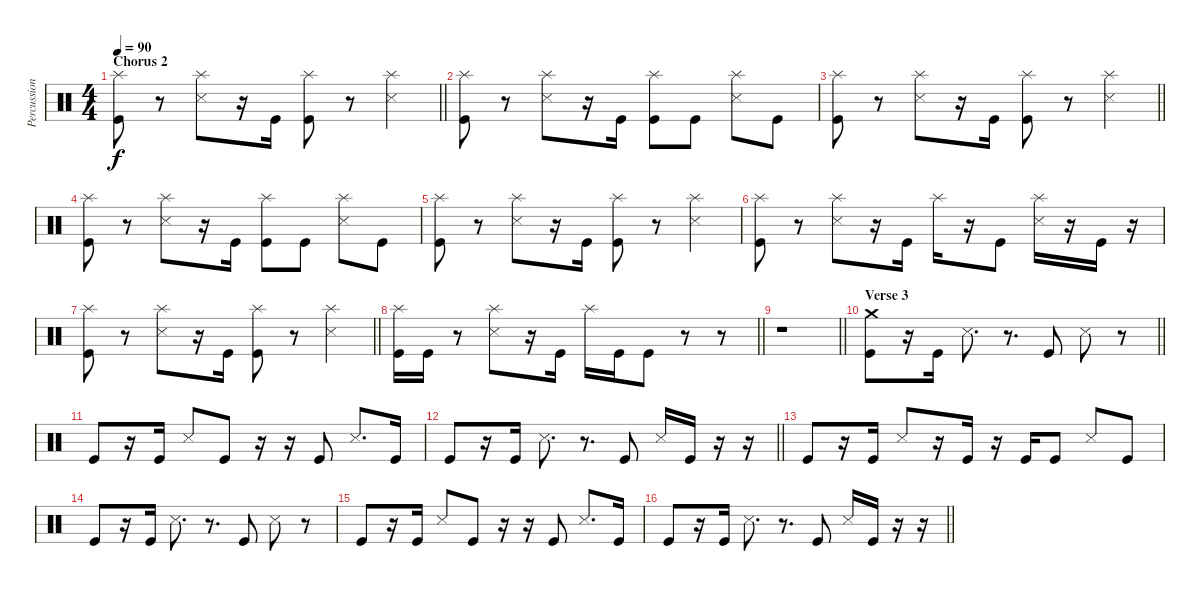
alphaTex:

\track ("Percussion" "Percussion") {instrument percussion}
\staff {score}
\articulation defaults
\ts (4 4)
\section ("" "Chorus 2")
\tempo 90
\clef neutral
\barLineRight lightlight
\ks c
("Splash (hit)" "Kick (hit)").8{dy f volume 13} r.8 ("Splash (hit)" "Snare (side stick) 3").8 r.16 "Kick (hit)".16 ("Splash (hit)" "Kick (hit)").8 r.8 ("Splash (hit)" "Snare (side stick) 3").4 |
("Splash (hit)" "Kick (hit)").8 r.8 ("Splash (hit)" "Snare (side stick) 3").8 r.16 "Kick (hit)".16 ("Splash (hit)" "Kick (hit)").8 "Kick (hit)".8 ("Splash (hit)" "Snare (side stick) 3").8 "Kick (hit)".8 |
\barLineRight lightlight
("Splash (hit)" "Kick (hit)").8 r.8 ("Splash (hit)" "Snare (side stick) 3").8 r.16 "Kick (hit)".16 ("Splash (hit)" "Kick (hit)").8 r.8 ("Splash (hit)" "Snare (side stick) 3").4 |
("Splash (hit)" "Kick (hit)").8 r.8 ("Splash (hit)" "Snare (side stick) 3").8 r.16 "Kick (hit)".16 ("Splash (hit)" "Kick (hit)").8 "Kick (hit)".8 ("Splash (hit)" "Snare (side stick) 3").8 "Kick (hit)".8 |
("Splash (hit)" "Kick (hit)").8 r.8 ("Splash (hit)" "Snare (side stick) 3").8 r.16 "Kick (hit)".16 ("Splash (hit)" "Kick (hit)").8 r.8 ("Splash (hit)" "Snare (side stick) 3").4 |
("Splash (hit)" "Kick (hit)").8 r.8 ("Splash (hit)" "Snare (side stick) 3").8 r.16 "Kick (hit)".16 "Splash (hit)".16 r.16 "Kick (hit)".8 ("Splash (hit)" "Snare (side stick) 3").16 r.16 "Kick (hit)".16 r.16 |
\barLineRight lightlight
("Splash (hit)" "Kick (hit)").8 r.8 ("Splash (hit)" "Snare (side stick) 3").8 r.16 "Kick (hit)".16 ("Splash (hit)" "Kick (hit)").8 r.8 ("Splash (hit)" "Snare (side stick) 3").4 |
\barLineRight lightlight
("Splash (hit)" "Kick (hit)").16 "Kick (hit)".16 r.8 ("Splash (hit)" "Snare (side stick) 3").8 r.16 "Kick (hit)".16 "Splash (hit)".16 "Kick (hit)".16 "Kick (hit)".8 r.8 r.8 |
\barLineRight lightlight
r.1 |
\section ("" "Verse 3")
\barLineRight lightlight
("Crash medium (hit)" "Kick (hit)").8{volume 13} r.16 "Kick (hit)".16 "Snare (side stick) 3".8{d} r.8{d} "Kick (hit)".8 "Snare (side stick) 3".8 r.8 |
"Kick (hit)".8 r.16 "Kick (hit)".16 "Snare (side stick) 3".8 "Kick (hit)".8 r.16 r.16 "Kick (hit)".8 "Snare (side stick) 3".8{d} "Kick (hit)".16 |
\barLineRight lightlight "Kick (hit)".8
r.16 "Kick (hit)".16 "Snare (side stick) 3".8{d} r.8{d} "Kick (hit)".8 "Snare (side stick) 3".16 "Kick (hit)".16 r.16 r.16 |
"Kick (hit)".8 r.16 "Kick (hit)".16 "Snare (side stick) 3".8 r.16 "Kick (hit)".16 r.16 "Kick (hit)".16 "Kick (hit)".8 "Snare (side stick) 3".8 "Kick (hit)".8 |
"Kick (hit)".8 r.16 "Kick (hit)".16 "Snare (side stick) 3".8{d} r.8{d} "Kick (hit)".8 "Snare (side stick) 3".8 r.8 |
"Kick (hit)".8 r.16 "Kick (hit)".16 "Snare (side stick) 3".8 "Kick (hit)".8 r.16 r.16 "Kick (hit)".8 "Snare (side stick) 3".8{d} "Kick (hit)".16 |
\barLineRight lightlight "Kick (hit)".8
r.16 "Kick (hit)".16 "Snare (side stick) 3".8{d} r.8{d} "Kick (hit)".8 "Snare (side stick) 3".16 "Kick (hit)".16 r.16 r.16
